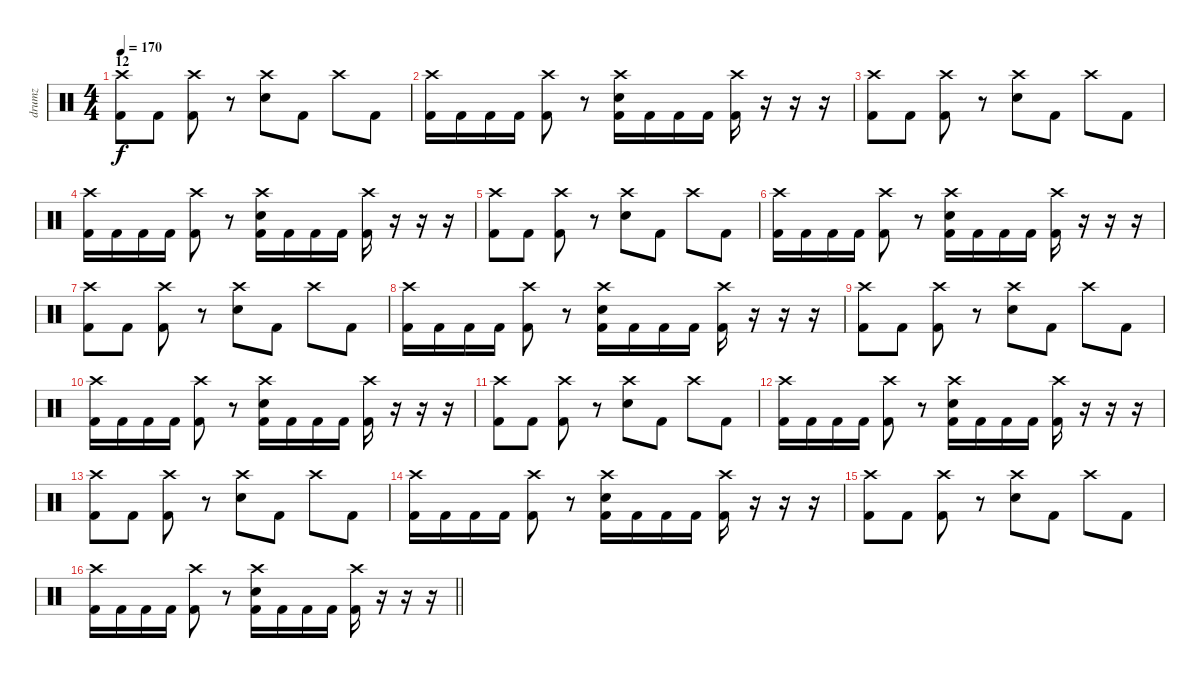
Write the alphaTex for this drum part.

\track ("drumz" "drumz") {instrument percussion}
\staff {score}
\articulation defaults
\ts (4 4)
\section ("" "12")
\tempo 170
\clef neutral
\ks c
("Crash high (hit)" "Kick (hit) 2").8{dy f} "Kick (hit) 2".8 ("Crash high (hit)" "Kick (hit) 2").8 r.8 ("Crash high (hit)" "Electric Snare (hit)").8 "Kick (hit) 2".8 "Crash high (hit)".8 "Kick (hit) 2".8 |
("Crash high (hit)" "Kick (hit) 2").16 "Kick (hit) 2".16 "Kick (hit) 2".16 "Kick (hit) 2".16 ("Crash high (hit)" "Kick (hit) 2").8 r.8 ("Crash high (hit)" "Electric Snare (hit)" "Kick (hit) 2").16 "Kick (hit) 2".16 "Kick (hit) 2".16 "Kick (hit) 2".16 ("Crash high (hit)" "Kick (hit) 2").16 r.16 r.16 r.16 |
("Crash high (hit)" "Kick (hit) 2").8 "Kick (hit) 2".8 ("Crash high (hit)" "Kick (hit) 2").8 r.8 ("Crash high (hit)" "Electric Snare (hit)").8 "Kick (hit) 2".8 "Crash high (hit)".8 "Kick (hit) 2".8 |
("Crash high (hit)" "Kick (hit) 2").16 "Kick (hit) 2".16 "Kick (hit) 2".16 "Kick (hit) 2".16 ("Crash high (hit)" "Kick (hit) 2").8 r.8 ("Crash high (hit)" "Electric Snare (hit)" "Kick (hit) 2").16 "Kick (hit) 2".16 "Kick (hit) 2".16 "Kick (hit) 2".16 ("Crash high (hit)" "Kick (hit) 2").16 r.16 r.16 r.16 |
("Crash high (hit)" "Kick (hit) 2").8 "Kick (hit) 2".8 ("Crash high (hit)" "Kick (hit) 2").8 r.8 ("Crash high (hit)" "Electric Snare (hit)").8 "Kick (hit) 2".8 "Crash high (hit)".8 "Kick (hit) 2".8 |
("Crash high (hit)" "Kick (hit) 2").16 "Kick (hit) 2".16 "Kick (hit) 2".16 "Kick (hit) 2".16 ("Crash high (hit)" "Kick (hit) 2").8 r.8 ("Crash high (hit)" "Electric Snare (hit)" "Kick (hit) 2").16 "Kick (hit) 2".16 "Kick (hit) 2".16 "Kick (hit) 2".16 ("Crash high (hit)" "Kick (hit) 2").16 r.16 r.16 r.16 |
("Crash high (hit)" "Kick (hit) 2").8 "Kick (hit) 2".8 ("Crash high (hit)" "Kick (hit) 2").8 r.8 ("Crash high (hit)" "Electric Snare (hit)").8 "Kick (hit) 2".8 "Crash high (hit)".8 "Kick (hit) 2".8 |
("Crash high (hit)" "Kick (hit) 2").16 "Kick (hit) 2".16 "Kick (hit) 2".16 "Kick (hit) 2".16 ("Crash high (hit)" "Kick (hit) 2").8 r.8 ("Crash high (hit)" "Electric Snare (hit)" "Kick (hit) 2").16 "Kick (hit) 2".16 "Kick (hit) 2".16 "Kick (hit) 2".16 ("Crash high (hit)" "Kick (hit) 2").16 r.16 r.16 r.16 |
("Crash high (hit)" "Kick (hit) 2").8 "Kick (hit) 2".8 ("Crash high (hit)" "Kick (hit) 2").8 r.8 ("Crash high (hit)" "Electric Snare (hit)").8 "Kick (hit) 2".8 "Crash high (hit)".8 "Kick (hit) 2".8 |
("Crash high (hit)" "Kick (hit) 2").16 "Kick (hit) 2".16 "Kick (hit) 2".16 "Kick (hit) 2".16 ("Crash high (hit)" "Kick (hit) 2").8 r.8 ("Crash high (hit)" "Electric Snare (hit)" "Kick (hit) 2").16 "Kick (hit) 2".16 "Kick (hit) 2".16 "Kick (hit) 2".16 ("Crash high (hit)" "Kick (hit) 2").16 r.16 r.16 r.16 |
("Crash high (hit)" "Kick (hit) 2").8 "Kick (hit) 2".8 ("Crash high (hit)" "Kick (hit) 2").8 r.8 ("Crash high (hit)" "Electric Snare (hit)").8 "Kick (hit) 2".8 "Crash high (hit)".8 "Kick (hit) 2".8 |
("Crash high (hit)" "Kick (hit) 2").16 "Kick (hit) 2".16 "Kick (hit) 2".16 "Kick (hit) 2".16 ("Crash high (hit)" "Kick (hit) 2").8 r.8 ("Crash high (hit)" "Electric Snare (hit)" "Kick (hit) 2").16 "Kick (hit) 2".16 "Kick (hit) 2".16 "Kick (hit) 2".16 ("Crash high (hit)" "Kick (hit) 2").16 r.16 r.16 r.16 |
("Crash high (hit)" "Kick (hit) 2").8 "Kick (hit) 2".8 ("Crash high (hit)" "Kick (hit) 2").8 r.8 ("Crash high (hit)" "Electric Snare (hit)").8 "Kick (hit) 2".8 "Crash high (hit)".8 "Kick (hit) 2".8 |
("Crash high (hit)" "Kick (hit) 2").16 "Kick (hit) 2".16 "Kick (hit) 2".16 "Kick (hit) 2".16 ("Crash high (hit)" "Kick (hit) 2").8 r.8 ("Crash high (hit)" "Electric Snare (hit)" "Kick (hit) 2").16 "Kick (hit) 2".16 "Kick (hit) 2".16 "Kick (hit) 2".16 ("Crash high (hit)" "Kick (hit) 2").16 r.16 r.16 r.16 |
("Crash high (hit)" "Kick (hit) 2").8 "Kick (hit) 2".8 ("Crash high (hit)" "Kick (hit) 2").8 r.8 ("Crash high (hit)" "Electric Snare (hit)").8 "Kick (hit) 2".8 "Crash high (hit)".8 "Kick (hit) 2".8 |
\barLineRight lightlight
("Crash high (hit)" "Kick (hit) 2").16 "Kick (hit) 2".16 "Kick (hit) 2".16 "Kick (hit) 2".16 ("Crash high (hit)" "Kick (hit) 2").8 r.8 ("Crash high (hit)" "Electric Snare (hit)" "Kick (hit) 2").16 "Kick (hit) 2".16 "Kick (hit) 2".16 "Kick (hit) 2".16 ("Crash high (hit)" "Kick (hit) 2").16 r.16 r.16 r.16
